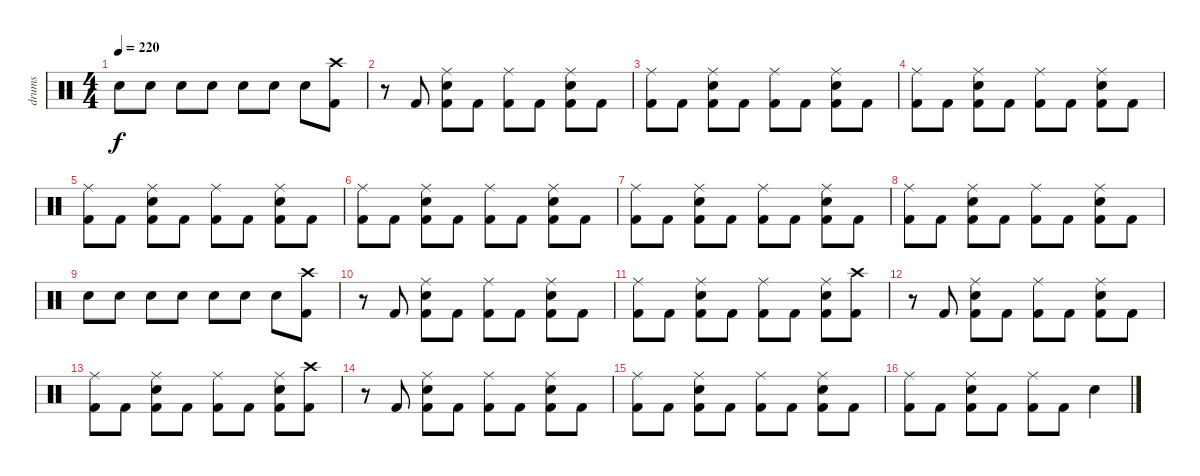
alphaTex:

\track ("drums" "drums") {instrument percussion}
\staff {score}
\articulation defaults
\ts (4 4)
\tempo 220
\clef neutral
\ks c "Electric Snare (hit)".8{dy f} "Electric Snare (hit)".8 "Electric Snare (hit)".8 "Electric Snare (hit)".8 "Electric Snare (hit)".8 "Electric Snare (hit)".8 "Electric Snare (hit)".8
("Crash high (hit)" "Kick (hit) 2").8 |
r.8 "Kick (hit) 2".8 ("Ride (middle)" "Electric Snare (hit)" "Kick (hit) 2").8 "Kick (hit) 2".8 ("Ride (middle)" "Kick (hit) 2").8 "Kick (hit) 2".8 ("Ride (middle)" "Electric Snare (hit)" "Kick (hit) 2").8 "Kick (hit) 2".8 |
("Ride (middle)" "Kick (hit) 2").8 "Kick (hit) 2".8 ("Ride (middle)" "Electric Snare (hit)" "Kick (hit) 2").8 "Kick (hit) 2".8 ("Ride (middle)" "Kick (hit) 2").8 "Kick (hit) 2".8 ("Ride (middle)" "Electric Snare (hit)" "Kick (hit) 2").8 "Kick (hit) 2".8 |
("Ride (middle)" "Kick (hit) 2").8 "Kick (hit) 2".8 ("Ride (middle)" "Electric Snare (hit)" "Kick (hit) 2").8 "Kick (hit) 2".8 ("Ride (middle)" "Kick (hit) 2").8 "Kick (hit) 2".8 ("Ride (middle)" "Electric Snare (hit)" "Kick (hit) 2").8 "Kick (hit) 2".8 |
("Ride (middle)" "Kick (hit) 2").8 "Kick (hit) 2".8 ("Ride (middle)" "Electric Snare (hit)" "Kick (hit) 2").8 "Kick (hit) 2".8 ("Ride (middle)" "Kick (hit) 2").8 "Kick (hit) 2".8 ("Ride (middle)" "Electric Snare (hit)" "Kick (hit) 2").8 "Kick (hit) 2".8 |
("Ride (middle)" "Kick (hit) 2").8 "Kick (hit) 2".8 ("Ride (middle)" "Electric Snare (hit)" "Kick (hit) 2").8 "Kick (hit) 2".8 ("Ride (middle)" "Kick (hit) 2").8 "Kick (hit) 2".8 ("Ride (middle)" "Electric Snare (hit)" "Kick (hit) 2").8 "Kick (hit) 2".8 |
("Ride (middle)" "Kick (hit) 2").8 "Kick (hit) 2".8 ("Ride (middle)" "Electric Snare (hit)" "Kick (hit) 2").8 "Kick (hit) 2".8 ("Ride (middle)" "Kick (hit) 2").8 "Kick (hit) 2".8 ("Ride (middle)" "Electric Snare (hit)" "Kick (hit) 2").8 "Kick (hit) 2".8 |
("Ride (middle)" "Kick (hit) 2").8 "Kick (hit) 2".8 ("Ride (middle)" "Electric Snare (hit)" "Kick (hit) 2").8 "Kick (hit) 2".8 ("Ride (middle)" "Kick (hit) 2").8 "Kick (hit) 2".8 ("Ride (middle)" "Electric Snare (hit)" "Kick (hit) 2").8 "Kick (hit) 2".8 |
"Electric Snare (hit)".8 "Electric Snare (hit)".8 "Electric Snare (hit)".8 "Electric Snare (hit)".8 "Electric Snare (hit)".8 "Electric Snare (hit)".8 "Electric Snare (hit)".8 ("Crash high (hit)" "Kick (hit) 2").8 |
r.8 "Kick (hit) 2".8 ("Ride (middle)" "Electric Snare (hit)" "Kick (hit) 2").8 "Kick (hit) 2".8 ("Ride (middle)" "Kick (hit) 2").8 "Kick (hit) 2".8 ("Ride (middle)" "Electric Snare (hit)" "Kick (hit) 2").8 "Kick (hit) 2".8 |
("Ride (middle)" "Kick (hit) 2").8 "Kick (hit) 2".8 ("Ride (middle)" "Electric Snare (hit)" "Kick (hit) 2").8 "Kick (hit) 2".8 ("Ride (middle)" "Kick (hit) 2").8 "Kick (hit) 2".8 ("Ride (middle)" "Electric Snare (hit)" "Kick (hit) 2").8 ("Crash high (hit)" "Kick (hit) 2").8 |
r.8 "Kick (hit) 2".8 ("Ride (middle)" "Electric Snare (hit)" "Kick (hit) 2").8 "Kick (hit) 2".8 ("Ride (middle)" "Kick (hit) 2").8 "Kick (hit) 2".8 ("Ride (middle)" "Electric Snare (hit)" "Kick (hit) 2").8 "Kick (hit) 2".8 |
("Ride (middle)" "Kick (hit) 2").8 "Kick (hit) 2".8 ("Ride (middle)" "Electric Snare (hit)" "Kick (hit) 2").8 "Kick (hit) 2".8 ("Ride (middle)" "Kick (hit) 2").8 "Kick (hit) 2".8 ("Ride (middle)" "Electric Snare (hit)" "Kick (hit) 2").8 ("Crash high (hit)" "Kick (hit) 2").8 |
r.8 "Kick (hit) 2".8 ("Ride (middle)" "Electric Snare (hit)" "Kick (hit) 2").8 "Kick (hit) 2".8 ("Ride (middle)" "Kick (hit) 2").8 "Kick (hit) 2".8 ("Ride (middle)" "Electric Snare (hit)" "Kick (hit) 2").8 "Kick (hit) 2".8 |
("Ride (middle)" "Kick (hit) 2").8 "Kick (hit) 2".8 ("Ride (middle)" "Electric Snare (hit)" "Kick (hit) 2").8 "Kick (hit) 2".8 ("Ride (middle)" "Kick (hit) 2").8 "Kick (hit) 2".8 ("Ride (middle)" "Electric Snare (hit)" "Kick (hit) 2").8 "Kick (hit) 2".8 |
("Ride (middle)" "Kick (hit) 2").8 "Kick (hit) 2".8 ("Ride (middle)" "Electric Snare (hit)" "Kick (hit) 2").8 "Kick (hit) 2".8 ("Ride (middle)" "Kick (hit) 2").8 "Kick (hit) 2".8 "Electric Snare (hit)".4
